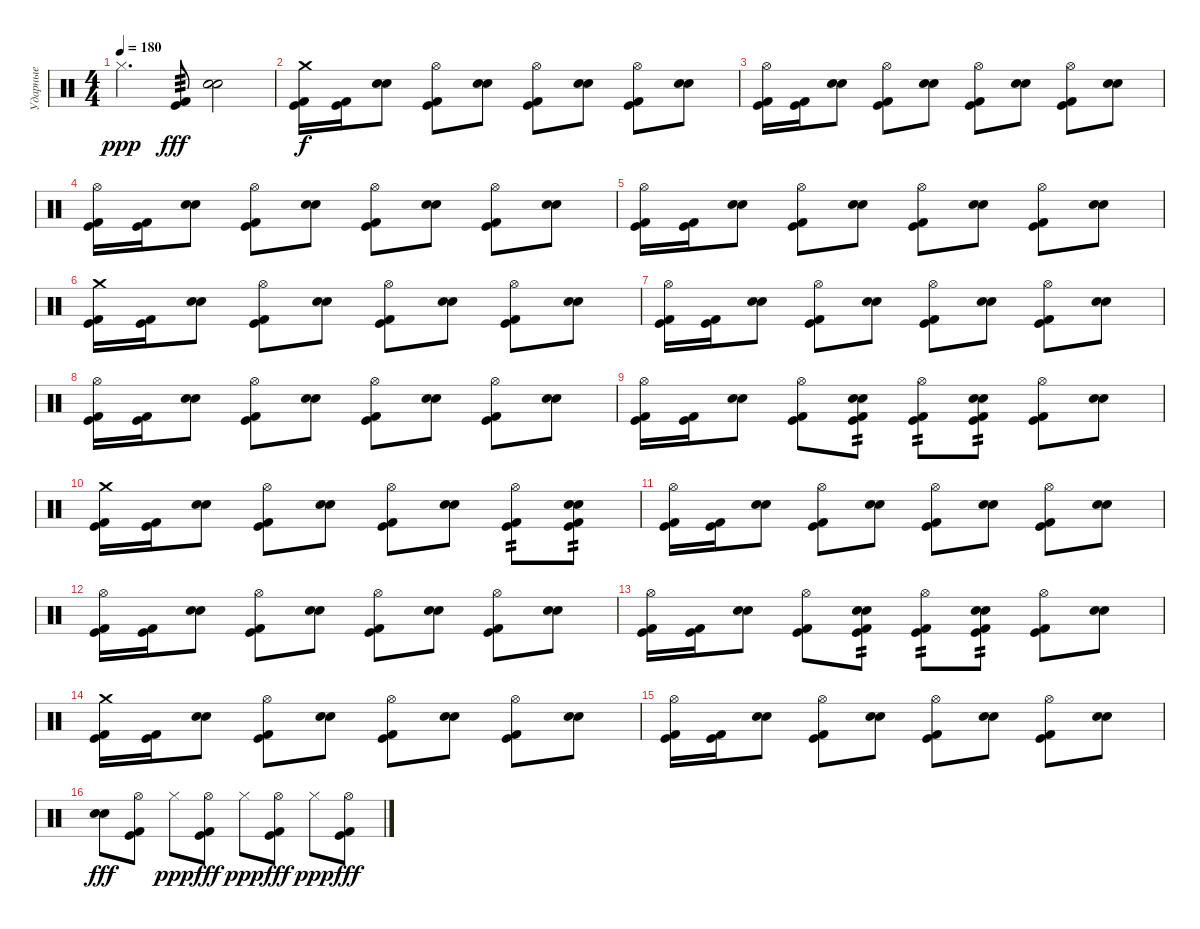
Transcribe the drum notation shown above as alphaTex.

\track ("Ударные" "Ударные") {instrument percussion}
\staff {score}
\articulation defaults
\ts (4 4)
\tempo 180
\clef neutral
\ks c "Hi-Hat (closed)".4{d dy ppp}
("Kick (hit)" "Kick (hit) 2").8{tp 3 dy fff} ("Electric Snare (hit)" "Snare (hit) 2").2 |
("Kick (hit) 2" "Kick (hit)" "Crash medium (hit)").16{dy f} ("Kick (hit) 2" "Kick (hit)").16 ("Electric Snare (hit)" "Snare (hit) 2").8 ("Kick (hit) 2" "Kick (hit)" "Hi-Hat (open)").8 ("Electric Snare (hit)" "Snare (hit) 2").8 ("Kick (hit) 2" "Kick (hit)" "Hi-Hat (open)").8 ("Electric Snare (hit)" "Snare (hit) 2").8 ("Kick (hit) 2" "Kick (hit)" "Hi-Hat (open)").8 ("Electric Snare (hit)" "Snare (hit) 2").8 |
("Kick (hit) 2" "Kick (hit)" "Hi-Hat (open)").16 ("Kick (hit) 2" "Kick (hit)").16 ("Electric Snare (hit)" "Snare (hit) 2").8 ("Kick (hit) 2" "Kick (hit)" "Hi-Hat (open)").8 ("Electric Snare (hit)" "Snare (hit) 2").8 ("Kick (hit) 2" "Kick (hit)" "Hi-Hat (open)").8 ("Electric Snare (hit)" "Snare (hit) 2").8 ("Kick (hit) 2" "Kick (hit)" "Hi-Hat (open)").8 ("Electric Snare (hit)" "Snare (hit) 2").8 |
("Kick (hit) 2" "Kick (hit)" "Hi-Hat (open)").16 ("Kick (hit) 2" "Kick (hit)").16 ("Electric Snare (hit)" "Snare (hit) 2").8 ("Kick (hit) 2" "Kick (hit)" "Hi-Hat (open)").8 ("Electric Snare (hit)" "Snare (hit) 2").8 ("Kick (hit) 2" "Kick (hit)" "Hi-Hat (open)").8 ("Electric Snare (hit)" "Snare (hit) 2").8 ("Kick (hit) 2" "Kick (hit)" "Hi-Hat (open)").8 ("Electric Snare (hit)" "Snare (hit) 2").8 |
("Kick (hit) 2" "Kick (hit)" "Hi-Hat (open)").16 ("Kick (hit) 2" "Kick (hit)").16 ("Electric Snare (hit)" "Snare (hit) 2").8 ("Kick (hit) 2" "Kick (hit)" "Hi-Hat (open)").8 ("Electric Snare (hit)" "Snare (hit) 2").8 ("Kick (hit) 2" "Kick (hit)" "Hi-Hat (open)").8 ("Electric Snare (hit)" "Snare (hit) 2").8 ("Kick (hit) 2" "Kick (hit)" "Hi-Hat (open)").8 ("Electric Snare (hit)" "Snare (hit) 2").8 |
("Kick (hit) 2" "Kick (hit)" "Crash medium (hit)").16 ("Kick (hit) 2" "Kick (hit)").16 ("Electric Snare (hit)" "Snare (hit) 2").8 ("Kick (hit) 2" "Kick (hit)" "Hi-Hat (open)").8 ("Electric Snare (hit)" "Snare (hit) 2").8 ("Kick (hit) 2" "Kick (hit)" "Hi-Hat (open)").8 ("Electric Snare (hit)" "Snare (hit) 2").8 ("Kick (hit) 2" "Kick (hit)" "Hi-Hat (open)").8 ("Electric Snare (hit)" "Snare (hit) 2").8 |
("Kick (hit) 2" "Kick (hit)" "Hi-Hat (open)").16 ("Kick (hit) 2" "Kick (hit)").16 ("Electric Snare (hit)" "Snare (hit) 2").8 ("Kick (hit) 2" "Kick (hit)" "Hi-Hat (open)").8 ("Electric Snare (hit)" "Snare (hit) 2").8 ("Kick (hit) 2" "Kick (hit)" "Hi-Hat (open)").8 ("Electric Snare (hit)" "Snare (hit) 2").8 ("Kick (hit) 2" "Kick (hit)" "Hi-Hat (open)").8 ("Electric Snare (hit)" "Snare (hit) 2").8 |
("Kick (hit) 2" "Kick (hit)" "Hi-Hat (open)").16 ("Kick (hit) 2" "Kick (hit)").16 ("Electric Snare (hit)" "Snare (hit) 2").8 ("Kick (hit) 2" "Kick (hit)" "Hi-Hat (open)").8 ("Electric Snare (hit)" "Snare (hit) 2").8 ("Kick (hit) 2" "Kick (hit)" "Hi-Hat (open)").8 ("Electric Snare (hit)" "Snare (hit) 2").8 ("Kick (hit) 2" "Kick (hit)" "Hi-Hat (open)").8 ("Electric Snare (hit)" "Snare (hit) 2").8 |
("Kick (hit) 2" "Kick (hit)" "Hi-Hat (open)").16 ("Kick (hit) 2" "Kick (hit)").16 ("Electric Snare (hit)" "Snare (hit) 2").8 ("Kick (hit) 2" "Kick (hit)" "Hi-Hat (open)").8 ("Kick (hit) 2" "Kick (hit)" "Electric Snare (hit)" "Snare (hit) 2").8{tp 2} ("Kick (hit) 2" "Kick (hit)" "Hi-Hat (open)").8{tp 2} ("Kick (hit) 2" "Kick (hit)" "Electric Snare (hit)" "Snare (hit) 2").8{tp 2} ("Kick (hit) 2" "Kick (hit)" "Hi-Hat (open)").8 ("Electric Snare (hit)" "Snare (hit) 2").8 |
("Kick (hit) 2" "Kick (hit)" "Crash medium (hit)").16 ("Kick (hit) 2" "Kick (hit)").16 ("Electric Snare (hit)" "Snare (hit) 2").8 ("Kick (hit) 2" "Kick (hit)" "Hi-Hat (open)").8 ("Electric Snare (hit)" "Snare (hit) 2").8 ("Kick (hit) 2" "Kick (hit)" "Hi-Hat (open)").8 ("Electric Snare (hit)" "Snare (hit) 2").8 ("Kick (hit) 2" "Kick (hit)" "Hi-Hat (open)").8{tp 2} ("Kick (hit) 2" "Kick (hit)" "Electric Snare (hit)" "Snare (hit) 2").8{tp 2} |
("Kick (hit) 2" "Kick (hit)" "Hi-Hat (open)").16 ("Kick (hit) 2" "Kick (hit)").16 ("Electric Snare (hit)" "Snare (hit) 2").8 ("Kick (hit) 2" "Kick (hit)" "Hi-Hat (open)").8 ("Electric Snare (hit)" "Snare (hit) 2").8 ("Kick (hit) 2" "Kick (hit)" "Hi-Hat (open)").8 ("Electric Snare (hit)" "Snare (hit) 2").8 ("Kick (hit) 2" "Kick (hit)" "Hi-Hat (open)").8 ("Electric Snare (hit)" "Snare (hit) 2").8 |
("Kick (hit) 2" "Kick (hit)" "Hi-Hat (open)").16 ("Kick (hit) 2" "Kick (hit)").16 ("Electric Snare (hit)" "Snare (hit) 2").8 ("Kick (hit) 2" "Kick (hit)" "Hi-Hat (open)").8 ("Electric Snare (hit)" "Snare (hit) 2").8 ("Kick (hit) 2" "Kick (hit)" "Hi-Hat (open)").8 ("Electric Snare (hit)" "Snare (hit) 2").8 ("Kick (hit) 2" "Kick (hit)" "Hi-Hat (open)").8 ("Electric Snare (hit)" "Snare (hit) 2").8 |
("Kick (hit) 2" "Kick (hit)" "Hi-Hat (open)").16 ("Kick (hit) 2" "Kick (hit)").16 ("Electric Snare (hit)" "Snare (hit) 2").8 ("Kick (hit) 2" "Kick (hit)" "Hi-Hat (open)").8 ("Kick (hit) 2" "Kick (hit)" "Electric Snare (hit)" "Snare (hit) 2").8{tp 2} ("Kick (hit) 2" "Kick (hit)" "Hi-Hat (open)").8{tp 2} ("Kick (hit) 2" "Kick (hit)" "Electric Snare (hit)" "Snare (hit) 2").8{tp 2} ("Kick (hit) 2" "Kick (hit)" "Hi-Hat (open)").8 ("Electric Snare (hit)" "Snare (hit) 2").8 |
("Kick (hit) 2" "Kick (hit)" "Crash medium (hit)").16 ("Kick (hit) 2" "Kick (hit)").16 ("Electric Snare (hit)" "Snare (hit) 2").8 ("Kick (hit) 2" "Kick (hit)" "Hi-Hat (open)").8 ("Electric Snare (hit)" "Snare (hit) 2").8 ("Kick (hit) 2" "Kick (hit)" "Hi-Hat (open)").8 ("Electric Snare (hit)" "Snare (hit) 2").8 ("Kick (hit) 2" "Kick (hit)" "Hi-Hat (open)").8 ("Electric Snare (hit)" "Snare (hit) 2").8 |
("Kick (hit) 2" "Kick (hit)" "Hi-Hat (open)").16 ("Kick (hit) 2" "Kick (hit)").16 ("Electric Snare (hit)" "Snare (hit) 2").8 ("Kick (hit) 2" "Kick (hit)" "Hi-Hat (open)").8 ("Electric Snare (hit)" "Snare (hit) 2").8 ("Kick (hit) 2" "Kick (hit)" "Hi-Hat (open)").8 ("Electric Snare (hit)" "Snare (hit) 2").8 ("Kick (hit) 2" "Kick (hit)" "Hi-Hat (open)").8 ("Electric Snare (hit)" "Snare (hit) 2").8 |
("Snare (hit) 2" "Electric Snare (hit)").8{dy fff} ("Kick (hit)" "Kick (hit) 2" "Hi-Hat (open)").8 "Hi-Hat (closed)".8{dy ppp} ("Kick (hit)" "Kick (hit) 2" "Hi-Hat (open)").8{dy fff} "Hi-Hat (closed)".8{dy ppp} ("Kick (hit)" "Kick (hit) 2" "Hi-Hat (open)").8{dy fff} "Hi-Hat (closed)".8{dy ppp} ("Kick (hit)" "Kick (hit) 2" "Hi-Hat (open)").8{dy fff}
